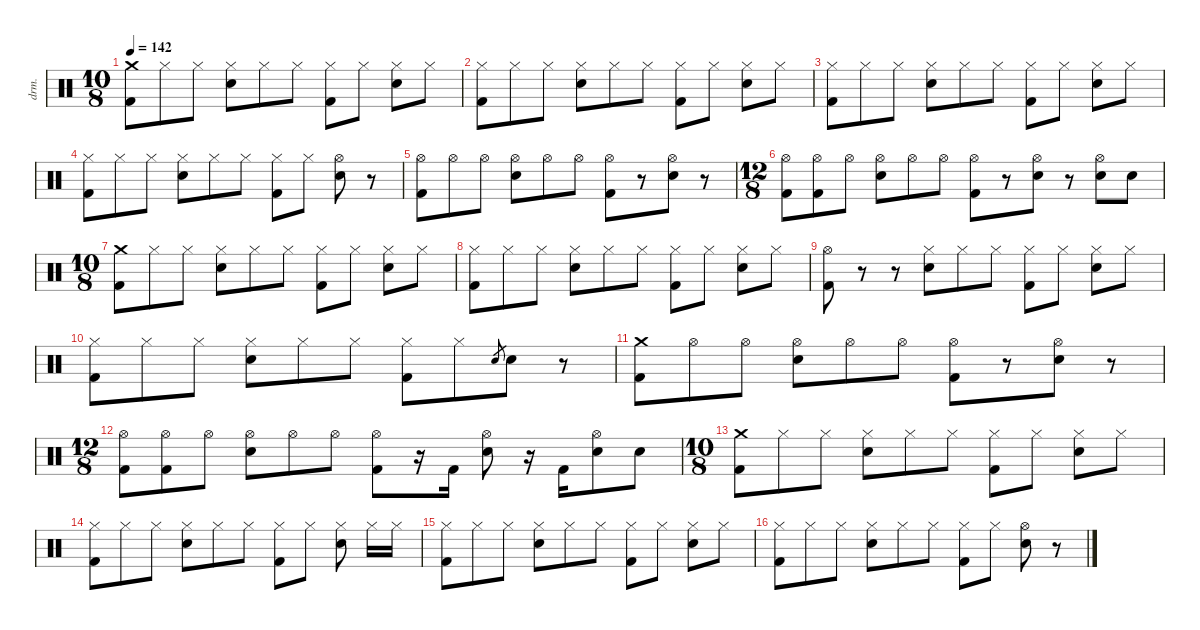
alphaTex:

\defaultSystemsLayout 4
\hideDynamics
\bracketExtendMode nobrackets
\otherSystemsTrackNameOrientation horizontal
\track ("Drums" "drm.") {instrument percussion}
\staff {score}
\articulation defaults
\ts (10 8)
\beaming (8 3 3 3 1)
\tempo 142
\clef neutral
\ks c
("Crash medium (hit)" "Kick (hit) 2").8{dy f beam Down beam merge} "Hi-Hat (closed)".8{beam Down beam merge} "Hi-Hat (closed)".8{beam Down} ("Hi-Hat (closed)" "Snare (hit) 2").8{beam Down beam merge} "Hi-Hat (closed)".8{beam Down beam merge} "Hi-Hat (closed)".8{beam Down} ("Hi-Hat (closed)" "Kick (hit) 2").8{beam Down beam merge} "Hi-Hat (closed)".8{beam Down beam split} ("Hi-Hat (closed)" "Snare (hit) 2").8{beam Down beam merge} "Hi-Hat (closed)".8{beam Down} |
("Hi-Hat (closed)" "Kick (hit) 2").8{beam Down} "Hi-Hat (closed)".8{beam Down} "Hi-Hat (closed)".8{beam Down} ("Hi-Hat (closed)" "Snare (hit) 2").8{beam Down} "Hi-Hat (closed)".8{beam Down} "Hi-Hat (closed)".8{beam Down} ("Hi-Hat (closed)" "Kick (hit) 2").8{beam Down beam merge} "Hi-Hat (closed)".8{beam Down beam split} ("Hi-Hat (closed)" "Snare (hit) 2").8{beam Down beam merge} "Hi-Hat (closed)".8{beam Down} |
("Hi-Hat (closed)" "Kick (hit) 2").8{beam Down} "Hi-Hat (closed)".8{beam Down} "Hi-Hat (closed)".8{beam Down} ("Hi-Hat (closed)" "Snare (hit) 2").8{beam Down} "Hi-Hat (closed)".8{beam Down} "Hi-Hat (closed)".8{beam Down} ("Hi-Hat (closed)" "Kick (hit) 2").8{beam Down beam merge} "Hi-Hat (closed)".8{beam Down beam split} ("Hi-Hat (closed)" "Snare (hit) 2").8{beam Down beam merge} "Hi-Hat (closed)".8{beam Down} |
("Hi-Hat (closed)" "Kick (hit) 2").8{beam Down} "Hi-Hat (closed)".8{beam Down} "Hi-Hat (closed)".8{beam Down} ("Hi-Hat (closed)" "Snare (hit) 2").8{beam Down} "Hi-Hat (closed)".8{beam Down} "Hi-Hat (closed)".8{beam Down} ("Hi-Hat (closed)" "Kick (hit) 2").8{beam Down beam merge} "Hi-Hat (closed)".8{beam Down beam split} ("Hi-Hat (open)" "Snare (hit) 2").8{beam Down} r.8{beam Down} |
("Hi-Hat (open)" "Kick (hit) 2").8{beam Down} "Hi-Hat (open)".8{dy mf beam Down} "Hi-Hat (open)".8{beam Down} ("Hi-Hat (open)" "Snare (hit) 2").8{dy f beam Down} "Hi-Hat (open)".8{dy mf beam Down} "Hi-Hat (open)".8{beam Down} ("Hi-Hat (open)" "Kick (hit) 2").8{dy f beam Down beam merge} r.8{beam Down beam split} ("Hi-Hat (open)" "Snare (hit) 2").8{beam Down} r.8{beam Down} |
\ts (12 8)
\beaming (8 3 3 3 3)
("Hi-Hat (open)" "Kick (hit) 2").8{beam Down} ("Hi-Hat (open)" "Kick (hit) 2").8{dy mf beam Down} "Hi-Hat (open)".8{beam Down} ("Hi-Hat (open)" "Snare (hit) 2").8{dy f beam Down} "Hi-Hat (open)".8{dy mf beam Down} "Hi-Hat (open)".8{beam Down} ("Hi-Hat (open)" "Kick (hit) 2").8{dy f beam Down beam merge} r.8{beam Down beam split} ("Hi-Hat (open)" "Snare (hit) 2").8{beam Down} r.8{beam Down} ("Hi-Hat (open)" "Snare (hit) 2").8{beam Down} "Snare (hit) 2".8{beam Down} |
\ts (10 8)
\beaming (8 3 3 3 3)
("Crash medium (hit)" "Kick (hit) 2").8{beam Down beam merge} "Hi-Hat (closed)".8{beam Down beam merge} "Hi-Hat (closed)".8{beam Down} ("Hi-Hat (closed)" "Snare (hit) 2").8{beam Down beam merge} "Hi-Hat (closed)".8{beam Down beam merge} "Hi-Hat (closed)".8{beam Down} ("Hi-Hat (closed)" "Kick (hit) 2").8{beam Down beam merge} "Hi-Hat (closed)".8{beam Down beam split} ("Hi-Hat (closed)" "Snare (hit) 2").8{beam Down beam merge} "Hi-Hat (closed)".8{beam Down} |
("Hi-Hat (closed)" "Kick (hit) 2").8{beam Down} "Hi-Hat (closed)".8{beam Down} "Hi-Hat (closed)".8{beam Down} ("Hi-Hat (closed)" "Snare (hit) 2").8{beam Down} "Hi-Hat (closed)".8{beam Down} "Hi-Hat (closed)".8{beam Down} ("Hi-Hat (closed)" "Kick (hit) 2").8{beam Down beam merge} "Hi-Hat (closed)".8{beam Down beam split} ("Hi-Hat (closed)" "Snare (hit) 2").8{beam Down beam merge} "Hi-Hat (closed)".8{beam Down} |
("Hi-Hat (open)" "Kick (hit) 2").8{beam Down} r.8{beam Down} r.8{beam Down} ("Hi-Hat (closed)" "Snare (hit) 2").8{beam Down} "Hi-Hat (closed)".8{beam Down} "Hi-Hat (closed)".8{beam Down} ("Hi-Hat (closed)" "Kick (hit) 2").8{beam Down beam merge} "Hi-Hat (closed)".8{beam Down beam split} ("Hi-Hat (closed)" "Snare (hit) 2").8{beam Down beam merge} "Hi-Hat (closed)".8{beam Down} |
("Hi-Hat (closed)" "Kick (hit) 2").8{beam Down} "Hi-Hat (closed)".8{beam Down} "Hi-Hat (closed)".8{beam Down} ("Hi-Hat (closed)" "Snare (hit) 2").8{beam Down} "Hi-Hat (closed)".8{beam Down} "Hi-Hat (closed)".8{beam Down} ("Hi-Hat (closed)" "Kick (hit) 2").8{beam Down beam merge} "Hi-Hat (closed)".8{beam Down} "Electric Snare (hit)".8{gr dy mf beam Up beam split} "Snare (hit) 2".8{dy f beam Down} r.8{beam Down} |
("Crash medium (hit)" "Kick (hit) 2").8{beam Down} "Hi-Hat (open)".8{dy mf beam Down} "Hi-Hat (open)".8{beam Down} ("Hi-Hat (open)" "Snare (hit) 2").8{dy f beam Down} "Hi-Hat (open)".8{dy mf beam Down} "Hi-Hat (open)".8{beam Down} ("Hi-Hat (open)" "Kick (hit) 2").8{dy f beam Down beam merge} r.8{beam Down beam split} ("Hi-Hat (open)" "Snare (hit) 2").8{beam Down} r.8{beam Down} |
\ts (12 8)
\beaming (8 3 3 3 3)
("Hi-Hat (open)" "Kick (hit) 2").8{beam Down} ("Hi-Hat (open)" "Kick (hit) 2").8{dy mf beam Down} "Hi-Hat (open)".8{beam Down} ("Hi-Hat (open)" "Snare (hit) 2").8{dy f beam Down} "Hi-Hat (open)".8{dy mf beam Down} "Hi-Hat (open)".8{beam Down} ("Hi-Hat (open)" "Kick (hit) 2").8{dy f beam Down} r.16{beam Down} "Kick (hit) 2".16{beam Down beam split} ("Hi-Hat (open)" "Snare (hit) 2").8{beam Down} r.16{beam Down} "Kick (hit) 2".16{beam Down} ("Hi-Hat (open)" "Snare (hit) 2").8{beam Down} "Snare (hit) 2".8{beam Down} |
\ts (10 8)
\beaming (8 3 3 3 3)
("Crash medium (hit)" "Kick (hit) 2").8{beam Down beam merge} "Hi-Hat (closed)".8{beam Down beam merge} "Hi-Hat (closed)".8{beam Down} ("Hi-Hat (closed)" "Snare (hit) 2").8{beam Down beam merge} "Hi-Hat (closed)".8{beam Down beam merge} "Hi-Hat (closed)".8{beam Down} ("Hi-Hat (closed)" "Kick (hit) 2").8{beam Down beam merge} "Hi-Hat (closed)".8{beam Down beam split} ("Hi-Hat (closed)" "Snare (hit) 2").8{beam Down beam merge} "Hi-Hat (closed)".8{beam Down} |
("Hi-Hat (closed)" "Kick (hit) 2").8{beam Down} "Hi-Hat (closed)".8{beam Down} "Hi-Hat (closed)".8{beam Down} ("Hi-Hat (closed)" "Snare (hit) 2").8{beam Down} "Hi-Hat (closed)".8{beam Down} "Hi-Hat (closed)".8{beam Down} ("Hi-Hat (closed)" "Kick (hit) 2").8{beam Down beam merge} "Hi-Hat (closed)".8{beam Down beam split} ("Hi-Hat (closed)" "Snare (hit) 2").8{beam Down} "Hi-Hat (closed)".16{beam Down} "Hi-Hat (closed)".16{beam Down} |
("Hi-Hat (closed)" "Kick (hit) 2").8{beam Down} "Hi-Hat (closed)".8{beam Down} "Hi-Hat (closed)".8{beam Down} ("Hi-Hat (closed)" "Snare (hit) 2").8{beam Down} "Hi-Hat (closed)".8{beam Down} "Hi-Hat (closed)".8{beam Down} ("Hi-Hat (closed)" "Kick (hit) 2").8{beam Down beam merge} "Hi-Hat (closed)".8{beam Down beam split} ("Hi-Hat (closed)" "Snare (hit) 2").8{beam Down beam merge} "Hi-Hat (closed)".8{beam Down} |
("Hi-Hat (closed)" "Kick (hit) 2").8{beam Down} "Hi-Hat (closed)".8{beam Down} "Hi-Hat (closed)".8{beam Down} ("Hi-Hat (closed)" "Snare (hit) 2").8{beam Down} "Hi-Hat (closed)".8{beam Down} "Hi-Hat (closed)".8{beam Down} ("Hi-Hat (closed)" "Kick (hit) 2").8{beam Down beam merge} "Hi-Hat (closed)".8{beam Down beam split} ("Hi-Hat (open)" "Snare (hit) 2").8{beam Down} r.8{beam Down}
